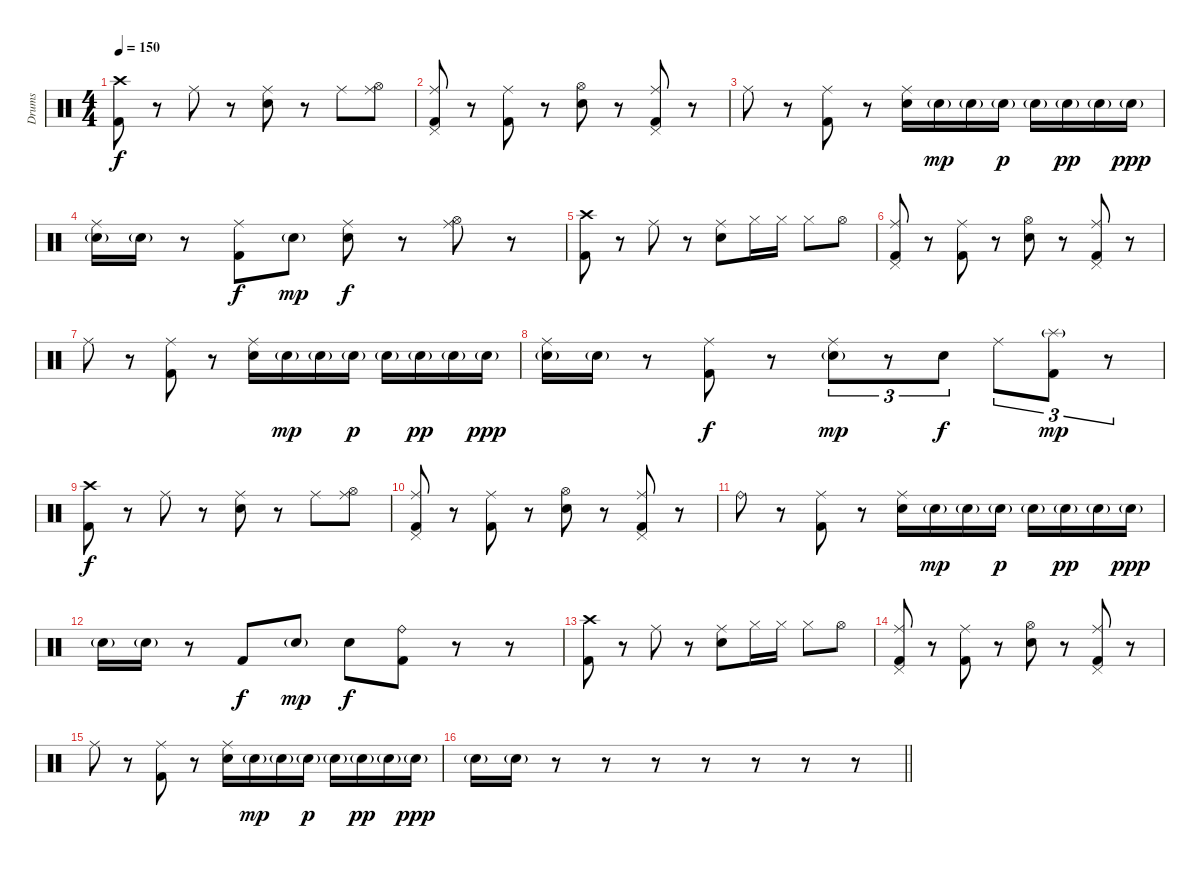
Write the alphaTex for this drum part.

\track ("Drums" "Drums") {instrument percussion}
\staff {score}
\articulation defaults
\ts (4 4)
\section ("" "")
\tempo 150
\clef neutral
\ks c
("Crash high (hit)" "Kick (hit) 2").8{dy f} r.8 "Ride (middle)".8 r.8 ("Ride (middle)" "Electric Snare (hit)").8 r.8 "Ride (middle)".8 ("Ride (middle)" "Hi-Hat (open)").8 |
("Ride (middle)" "Pedal Hi-Hat (hit)" "Kick (hit) 2").8 r.8 ("Ride (middle)" "Kick (hit) 2").8 r.8 ("Hi-Hat (open)" "Electric Snare (hit)").8 r.8 ("Ride (middle)" "Pedal Hi-Hat (hit)" "Kick (hit) 2").8 r.8 |
"Ride (middle)".8 r.8 ("Ride (middle)" "Kick (hit) 2").8 r.8 ("Ride (middle)" "Electric Snare (hit)").16 "Electric Snare (hit)"{g}.16{dy mp} "Electric Snare (hit)"{g}.16 "Electric Snare (hit)"{g}.16{dy p} "Electric Snare (hit)"{g}.16 "Electric Snare (hit)"{g}.16{dy pp} "Electric Snare (hit)"{g}.16 "Electric Snare (hit)"{g}.16{dy ppp} |
("Ride (middle)" "Electric Snare (hit)"{g}).16 "Electric Snare (hit)"{g}.16 r.8 ("Ride (middle)" "Kick (hit) 2").8{dy f} "Electric Snare (hit)"{g}.8{dy mp} ("Ride (middle)" "Electric Snare (hit)").8{dy f} r.8 ("Ride (middle)" "Hi-Hat (open)").8 r.8 |
("Crash high (hit)" "Kick (hit) 2").8 r.8 "Ride (middle)".8 r.8 ("Ride (middle)" "Electric Snare (hit)").8 "Hi-Hat (closed)".16 "Hi-Hat (closed)".16 "Hi-Hat (closed)".8 "Hi-Hat (open)".8 |
("Ride (middle)" "Pedal Hi-Hat (hit)" "Kick (hit) 2").8 r.8 ("Ride (middle)" "Kick (hit) 2").8 r.8 ("Hi-Hat (open)" "Electric Snare (hit)").8 r.8 ("Ride (middle)" "Pedal Hi-Hat (hit)" "Kick (hit) 2").8 r.8 |
"Ride (middle)".8 r.8 ("Ride (middle)" "Kick (hit) 2").8 r.8 ("Ride (middle)" "Electric Snare (hit)").16 "Electric Snare (hit)"{g}.16{dy mp} "Electric Snare (hit)"{g}.16 "Electric Snare (hit)"{g}.16{dy p} "Electric Snare (hit)"{g}.16 "Electric Snare (hit)"{g}.16{dy pp} "Electric Snare (hit)"{g}.16 "Electric Snare (hit)"{g}.16{dy ppp} |
("Ride (middle)" "Electric Snare (hit)"{g}).16 "Electric Snare (hit)"{g}.16 r.8 ("Ride (middle)" "Kick (hit) 2").8{dy f} r.8 ("Ride (middle)" "Electric Snare (hit)"{g}).8{tu (3 2) dy mp} r.8{tu (3 2)} "Electric Snare (hit)".8{tu (3 2) dy f} "Ride (middle)".8{tu (3 2)} ("Splash (hit)"{g} "Kick (hit) 2").8{tu (3 2) dy mp} r.8{tu (3 2)} |
("Crash high (hit)" "Kick (hit) 2").8{dy f} r.8 "Ride (middle)".8 r.8 ("Ride (middle)" "Electric Snare (hit)").8 r.8 "Ride (middle)".8 ("Ride (middle)" "Hi-Hat (open)").8 |
("Ride (middle)" "Pedal Hi-Hat (hit)" "Kick (hit) 2").8 r.8 ("Ride (middle)" "Kick (hit) 2").8 r.8 ("Hi-Hat (open)" "Electric Snare (hit)").8 r.8 ("Ride (middle)" "Pedal Hi-Hat (hit)" "Kick (hit) 2").8 r.8 |
"Ride (bell)".8 r.8 ("Ride (middle)" "Kick (hit) 2").8 r.8 ("Ride (middle)" "Electric Snare (hit)").16 "Electric Snare (hit)"{g}.16{dy mp} "Electric Snare (hit)"{g}.16 "Electric Snare (hit)"{g}.16{dy p} "Electric Snare (hit)"{g}.16 "Electric Snare (hit)"{g}.16{dy pp} "Electric Snare (hit)"{g}.16 "Electric Snare (hit)"{g}.16{dy ppp} |
"Electric Snare (hit)"{g}.16 "Electric Snare (hit)"{g}.16 r.8 "Kick (hit) 2".8{dy f} "Electric Snare (hit)"{g}.8{dy mp} "Electric Snare (hit)".8{dy f} ("Ride (bell)" "Kick (hit) 2").8 r.8 r.8 |
("Crash high (hit)" "Kick (hit) 2").8 r.8 "Ride (middle)".8 r.8 ("Ride (middle)" "Electric Snare (hit)").8 "Hi-Hat (closed)".16 "Hi-Hat (closed)".16 "Hi-Hat (closed)".8 "Hi-Hat (open)".8 |
("Ride (middle)" "Pedal Hi-Hat (hit)" "Kick (hit) 2").8 r.8 ("Ride (middle)" "Kick (hit) 2").8 r.8 ("Hi-Hat (open)" "Electric Snare (hit)").8 r.8 ("Ride (middle)" "Pedal Hi-Hat (hit)" "Kick (hit) 2").8 r.8 |
"Ride (middle)".8 r.8 ("Ride (middle)" "Kick (hit) 2").8 r.8 ("Ride (middle)" "Electric Snare (hit)").16 "Electric Snare (hit)"{g}.16{dy mp} "Electric Snare (hit)"{g}.16 "Electric Snare (hit)"{g}.16{dy p} "Electric Snare (hit)"{g}.16 "Electric Snare (hit)"{g}.16{dy pp} "Electric Snare (hit)"{g}.16 "Electric Snare (hit)"{g}.16{dy ppp} |
\barLineRight lightlight "Electric Snare (hit)"{g}.16 "Electric Snare (hit)"{g}.16
r.8 r.8 r.8 r.8 r.8 r.8 r.8
